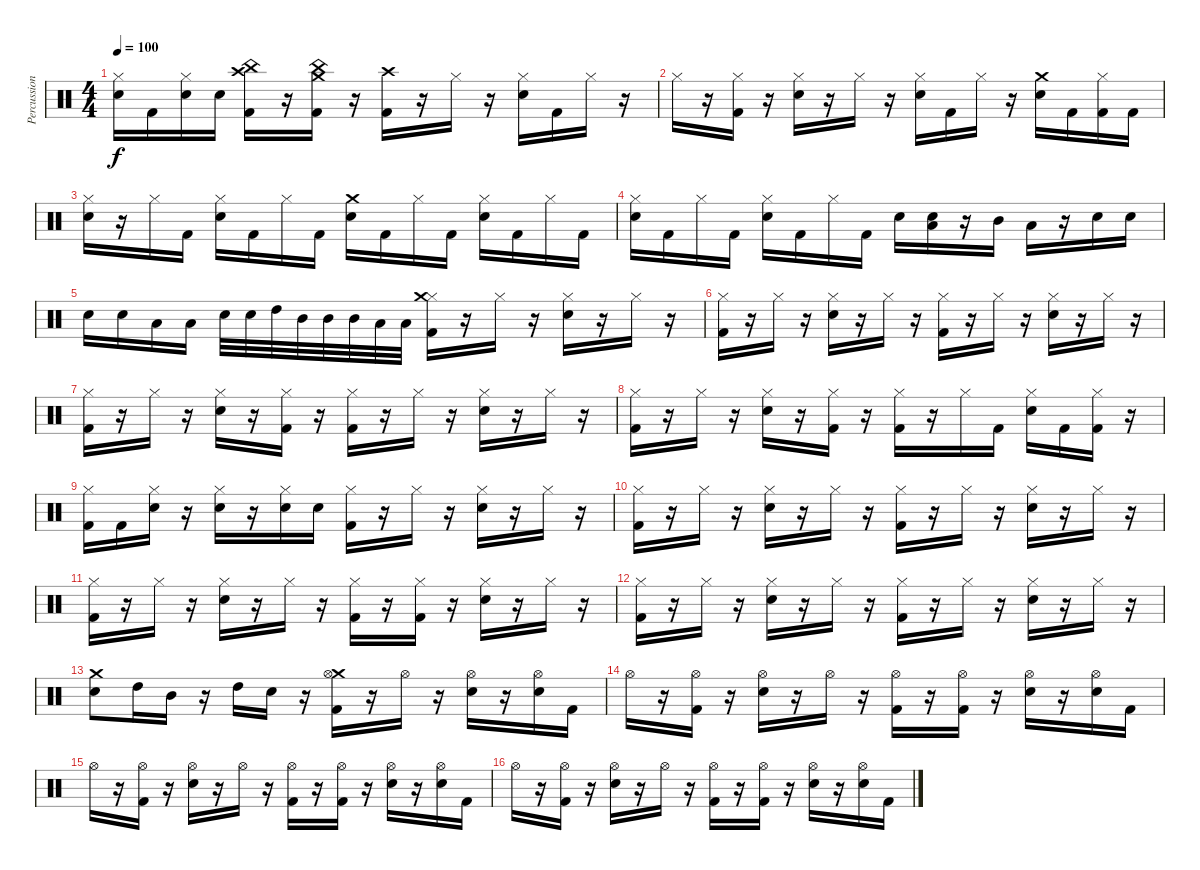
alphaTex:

\track ("Percussion" "Percussion") {instrument percussion}
\staff {score}
\articulation defaults
\ts (4 4)
\tempo 100
\clef neutral
\ks c
("Hi-Hat (closed)" "Snare (hit) 2").16{dy f} "Kick (hit) 2".16 ("Hi-Hat (closed)" "Snare (hit) 2").16 "Snare (hit) 2".16 ("China (hit)" "Crash high (hit)" "Kick (hit) 2").16 r.16 ("China (hit)" "Crash medium (hit)" "Kick (hit) 2").16 r.16 ("Crash high (hit)" "Kick (hit) 2").16 r.16 "Hi-Hat (closed)".16 r.16 ("Hi-Hat (closed)" "Snare (hit) 2").16 "Kick (hit) 2".16 "Hi-Hat (closed)".16 r.16 |
"Hi-Hat (closed)".16 r.16 ("Hi-Hat (closed)" "Kick (hit) 2").16 r.16 ("Hi-Hat (closed)" "Snare (hit) 2").16 r.16 "Hi-Hat (closed)".16 r.16 ("Hi-Hat (closed)" "Snare (hit) 2").16 "Kick (hit) 2".16 "Hi-Hat (closed)".16 r.16 ("Crash medium (hit)" "Snare (hit) 2").16 "Kick (hit) 2".16 ("Hi-Hat (closed)" "Kick (hit) 2").16 "Kick (hit) 2".16 |
("Hi-Hat (closed)" "Snare (hit) 2").16 r.16 "Hi-Hat (closed)".16 "Kick (hit) 2".16 ("Hi-Hat (closed)" "Snare (hit) 2").16 "Kick (hit) 2".16 "Hi-Hat (closed)".16 "Kick (hit) 2".16 ("Crash medium (hit)" "Snare (hit) 2").16 "Kick (hit) 2".16 "Hi-Hat (closed)".16 "Kick (hit) 2".16 ("Hi-Hat (closed)" "Snare (hit) 2").16 "Kick (hit) 2".16 "Hi-Hat (closed)".16 "Kick (hit) 2".16 |
("Hi-Hat (closed)" "Snare (hit) 2").16 "Kick (hit) 2".16 "Hi-Hat (closed)".16 "Kick (hit) 2".16 ("Hi-Hat (closed)" "Snare (hit) 2").16 "Kick (hit) 2".16 "Hi-Hat (closed)".16 "Kick (hit) 2".16 "Snare (hit) 2".16 ("Low Tom (hit)" "Snare (hit) 2").16 r.16 "Mid Tom (hit)".16 "Low Tom (hit)".16 r.16 "Snare (hit) 2".16 "Snare (hit) 2".16 |
"Snare (hit) 2".16 "Snare (hit) 2".16 "Low Tom (hit)".16 "Low Tom (hit)".16 "Snare (hit) 2".32 "Snare (hit) 2".32 "High Tom (hit)".32 "Mid Tom (hit)".32 "Mid Tom (hit)".32 "Mid Tom (hit)".32 "Low Tom (hit)".32 "Low Tom (hit)".32 ("Hi-Hat (closed)" "Crash medium (hit)" "Kick (hit) 2").16 r.16 "Hi-Hat (closed)".16 r.16 ("Hi-Hat (closed)" "Snare (hit) 2").16 r.16 "Hi-Hat (closed)".16 r.16 |
("Hi-Hat (closed)" "Kick (hit) 2").16 r.16 "Hi-Hat (closed)".16 r.16 ("Hi-Hat (closed)" "Snare (hit) 2").16 r.16 "Hi-Hat (closed)".16 r.16 ("Hi-Hat (closed)" "Kick (hit) 2").16 r.16 "Hi-Hat (closed)".16 r.16 ("Hi-Hat (closed)" "Snare (hit) 2").16 r.16 "Hi-Hat (closed)".16 r.16 |
("Hi-Hat (closed)" "Kick (hit) 2").16 r.16 "Hi-Hat (closed)".16 r.16 ("Hi-Hat (closed)" "Snare (hit) 2").16 r.16 ("Hi-Hat (closed)" "Kick (hit) 2").16 r.16 ("Hi-Hat (closed)" "Kick (hit) 2").16 r.16 "Hi-Hat (closed)".16 r.16 ("Hi-Hat (closed)" "Snare (hit) 2").16 r.16 "Hi-Hat (closed)".16 r.16 |
("Hi-Hat (closed)" "Kick (hit) 2").16 r.16 "Hi-Hat (closed)".16 r.16 ("Hi-Hat (closed)" "Snare (hit) 2").16 r.16 ("Hi-Hat (closed)" "Kick (hit) 2").16 r.16 ("Hi-Hat (closed)" "Kick (hit) 2").16 r.16 "Hi-Hat (closed)".16 "Kick (hit) 2".16 ("Hi-Hat (closed)" "Snare (hit) 2").16 "Kick (hit) 2".16 ("Hi-Hat (closed)" "Kick (hit) 2").16 r.16 |
("Hi-Hat (closed)" "Kick (hit) 2").16 "Kick (hit) 2".16 ("Hi-Hat (closed)" "Snare (hit) 2").16 r.16 ("Hi-Hat (closed)" "Snare (hit) 2").16 r.16 ("Hi-Hat (closed)" "Snare (hit) 2").16 "Snare (hit) 2".16 ("Hi-Hat (closed)" "Kick (hit) 2").16 r.16 "Hi-Hat (closed)".16 r.16 ("Hi-Hat (closed)" "Snare (hit) 2").16 r.16 "Hi-Hat (closed)".16 r.16 |
("Hi-Hat (closed)" "Kick (hit) 2").16 r.16 "Hi-Hat (closed)".16 r.16 ("Hi-Hat (closed)" "Snare (hit) 2").16 r.16 "Hi-Hat (closed)".16 r.16 ("Hi-Hat (closed)" "Kick (hit) 2").16 r.16 "Hi-Hat (closed)".16 r.16 ("Hi-Hat (closed)" "Snare (hit) 2").16 r.16 "Hi-Hat (closed)".16 r.16 |
("Hi-Hat (closed)" "Kick (hit) 2").16 r.16 "Hi-Hat (closed)".16 r.16 ("Hi-Hat (closed)" "Snare (hit) 2").16 r.16 "Hi-Hat (closed)".16 r.16 ("Hi-Hat (closed)" "Kick (hit) 2").16 r.16 ("Hi-Hat (closed)" "Kick (hit) 2").16 r.16 ("Hi-Hat (closed)" "Snare (hit) 2").16 r.16 "Hi-Hat (closed)".16 r.16 |
("Hi-Hat (closed)" "Kick (hit) 2").16 r.16 "Hi-Hat (closed)".16 r.16 ("Hi-Hat (closed)" "Snare (hit) 2").16 r.16 "Hi-Hat (closed)".16 r.16 ("Hi-Hat (closed)" "Kick (hit) 2").16 r.16 "Hi-Hat (closed)".16 r.16 ("Hi-Hat (closed)" "Snare (hit) 2").16 r.16 "Hi-Hat (closed)".16 r.16 |
("Crash medium (hit)" "Snare (hit) 2").8 "High Tom (hit)".16 "Mid Tom (hit)".16 r.16 "High Tom (hit)".16 "Snare (hit) 2".16 r.16 ("Crash medium (hit)" "Hi-Hat (open)" "Kick (hit) 2").16 r.16 "Hi-Hat (open)".16 r.16 ("Hi-Hat (open)" "Snare (hit) 2").16 r.16 ("Hi-Hat (open)" "Snare (hit) 2").16 "Kick (hit) 2".16 |
"Hi-Hat (open)".16 r.16 ("Hi-Hat (open)" "Kick (hit) 2").16 r.16 ("Hi-Hat (open)" "Snare (hit) 2").16 r.16 "Hi-Hat (open)".16 r.16 ("Hi-Hat (open)" "Kick (hit) 2").16 r.16 ("Hi-Hat (open)" "Kick (hit) 2").16 r.16 ("Hi-Hat (open)" "Snare (hit) 2").16 r.16 ("Hi-Hat (open)" "Snare (hit) 2").16 "Kick (hit) 2".16 |
"Hi-Hat (open)".16 r.16 ("Hi-Hat (open)" "Kick (hit) 2").16 r.16 ("Hi-Hat (open)" "Snare (hit) 2").16 r.16 "Hi-Hat (open)".16 r.16 ("Hi-Hat (open)" "Kick (hit) 2").16 r.16 ("Hi-Hat (open)" "Kick (hit) 2").16 r.16 ("Hi-Hat (open)" "Snare (hit) 2").16 r.16 ("Hi-Hat (open)" "Snare (hit) 2").16 "Kick (hit) 2".16 |
"Hi-Hat (open)".16 r.16 ("Hi-Hat (open)" "Kick (hit) 2").16 r.16 ("Hi-Hat (open)" "Snare (hit) 2").16 r.16 "Hi-Hat (open)".16 r.16 ("Hi-Hat (open)" "Kick (hit) 2").16 r.16 ("Hi-Hat (open)" "Kick (hit) 2").16 r.16 ("Hi-Hat (open)" "Snare (hit) 2").16 r.16 ("Hi-Hat (open)" "Snare (hit) 2").16 "Kick (hit) 2".16
